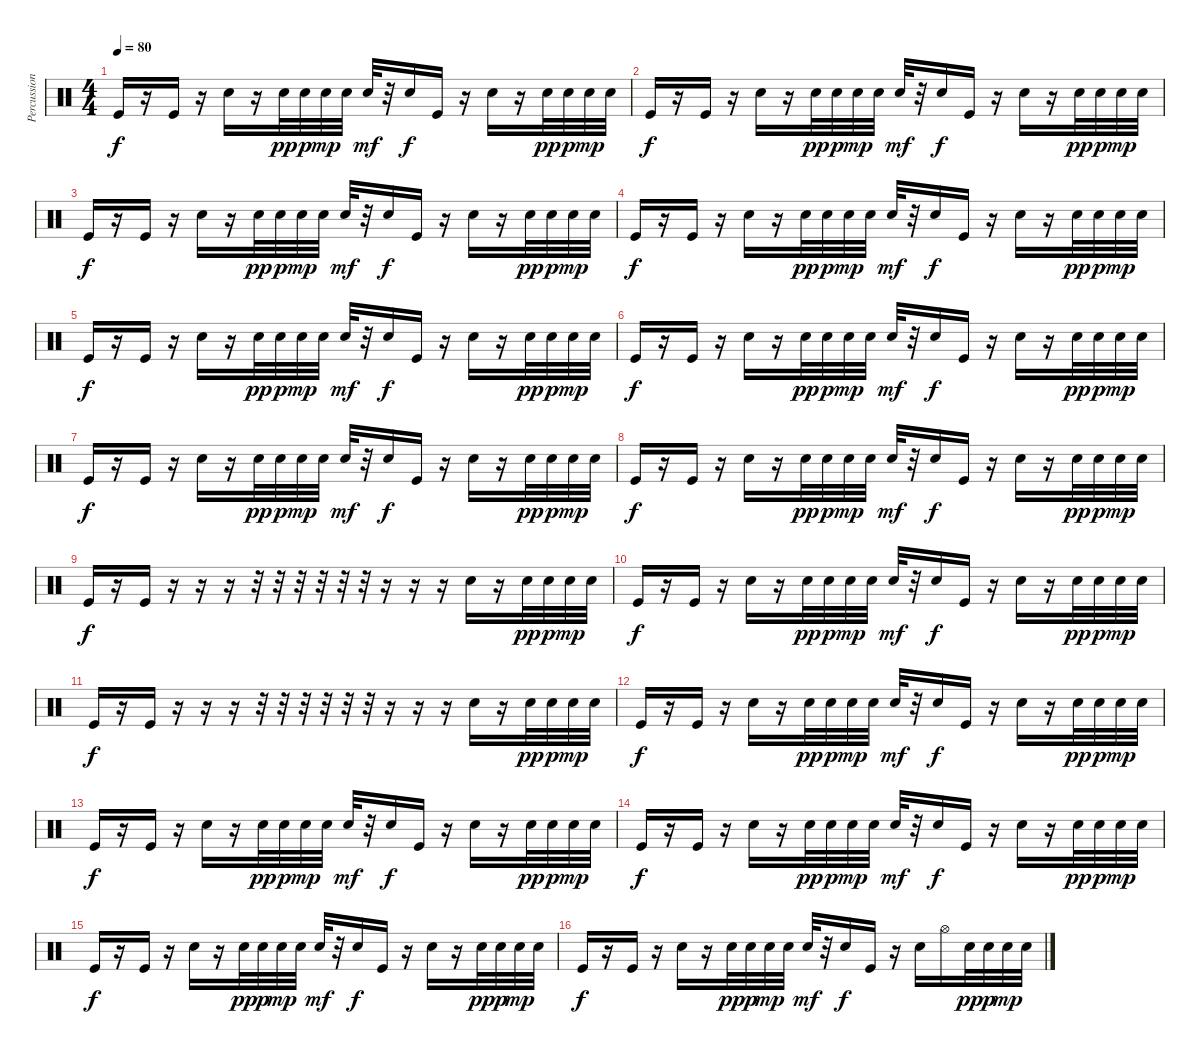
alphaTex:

\track ("Percussions" "Percussion") {instrument percussion}
\staff {score}
\articulation defaults
\ts (4 4)
\tempo 80
\clef neutral
\ks c "Kick (hit)".16{dy f}
r.16 "Kick (hit)".16 r.16 "Snare (hit) 2".16 r.16 "Snare (hit) 2".32{dy pp} "Snare (hit) 2".32{dy p} "Snare (hit) 2".32{dy mp} "Snare (hit) 2".32 "Snare (hit) 2".32{dy mf} r.32 "Electric Snare (hit)".16{dy f} "Kick (hit)".16 r.16 "Electric Snare (hit)".16 r.16 "Snare (hit) 2".32{dy pp} "Snare (hit) 2".32{dy p} "Snare (hit) 2".32{dy mp} "Snare (hit) 2".32 |
"Kick (hit)".16{dy f} r.16 "Kick (hit)".16 r.16 "Snare (hit) 2".16 r.16 "Snare (hit) 2".32{dy pp} "Snare (hit) 2".32{dy p} "Snare (hit) 2".32{dy mp} "Snare (hit) 2".32 "Snare (hit) 2".32{dy mf} r.32 "Electric Snare (hit)".16{dy f} "Kick (hit)".16 r.16 "Electric Snare (hit)".16 r.16 "Snare (hit) 2".32{dy pp} "Snare (hit) 2".32{dy p} "Snare (hit) 2".32{dy mp} "Snare (hit) 2".32 |
"Kick (hit)".16{dy f} r.16 "Kick (hit)".16 r.16 "Snare (hit) 2".16 r.16 "Snare (hit) 2".32{dy pp} "Snare (hit) 2".32{dy p} "Snare (hit) 2".32{dy mp} "Snare (hit) 2".32 "Snare (hit) 2".32{dy mf} r.32 "Electric Snare (hit)".16{dy f} "Kick (hit)".16 r.16 "Electric Snare (hit)".16 r.16 "Snare (hit) 2".32{dy pp} "Snare (hit) 2".32{dy p} "Snare (hit) 2".32{dy mp} "Snare (hit) 2".32 |
"Kick (hit)".16{dy f} r.16 "Kick (hit)".16 r.16 "Snare (hit) 2".16 r.16 "Snare (hit) 2".32{dy pp} "Snare (hit) 2".32{dy p} "Snare (hit) 2".32{dy mp} "Snare (hit) 2".32 "Snare (hit) 2".32{dy mf} r.32 "Electric Snare (hit)".16{dy f} "Kick (hit)".16 r.16 "Electric Snare (hit)".16 r.16 "Snare (hit) 2".32{dy pp} "Snare (hit) 2".32{dy p} "Snare (hit) 2".32{dy mp} "Snare (hit) 2".32 |
"Kick (hit)".16{dy f} r.16 "Kick (hit)".16 r.16 "Snare (hit) 2".16 r.16 "Snare (hit) 2".32{dy pp} "Snare (hit) 2".32{dy p} "Snare (hit) 2".32{dy mp} "Snare (hit) 2".32 "Snare (hit) 2".32{dy mf} r.32 "Electric Snare (hit)".16{dy f} "Kick (hit)".16 r.16 "Electric Snare (hit)".16 r.16 "Snare (hit) 2".32{dy pp} "Snare (hit) 2".32{dy p} "Snare (hit) 2".32{dy mp} "Snare (hit) 2".32 |
"Kick (hit)".16{dy f} r.16 "Kick (hit)".16 r.16 "Snare (hit) 2".16 r.16 "Snare (hit) 2".32{dy pp} "Snare (hit) 2".32{dy p} "Snare (hit) 2".32{dy mp} "Snare (hit) 2".32 "Snare (hit) 2".32{dy mf} r.32 "Electric Snare (hit)".16{dy f} "Kick (hit)".16 r.16 "Electric Snare (hit)".16 r.16 "Snare (hit) 2".32{dy pp} "Snare (hit) 2".32{dy p} "Snare (hit) 2".32{dy mp} "Snare (hit) 2".32 |
"Kick (hit)".16{dy f} r.16 "Kick (hit)".16 r.16 "Snare (hit) 2".16 r.16 "Snare (hit) 2".32{dy pp} "Snare (hit) 2".32{dy p} "Snare (hit) 2".32{dy mp} "Snare (hit) 2".32 "Snare (hit) 2".32{dy mf} r.32 "Electric Snare (hit)".16{dy f} "Kick (hit)".16 r.16 "Electric Snare (hit)".16 r.16 "Snare (hit) 2".32{dy pp} "Snare (hit) 2".32{dy p} "Snare (hit) 2".32{dy mp} "Snare (hit) 2".32 |
"Kick (hit)".16{dy f} r.16 "Kick (hit)".16 r.16 "Snare (hit) 2".16 r.16 "Snare (hit) 2".32{dy pp} "Snare (hit) 2".32{dy p} "Snare (hit) 2".32{dy mp} "Snare (hit) 2".32 "Snare (hit) 2".32{dy mf} r.32 "Electric Snare (hit)".16{dy f} "Kick (hit)".16 r.16 "Electric Snare (hit)".16 r.16 "Snare (hit) 2".32{dy pp} "Snare (hit) 2".32{dy p} "Snare (hit) 2".32{dy mp} "Snare (hit) 2".32 |
"Kick (hit)".16{dy f} r.16 "Kick (hit)".16 r.16 r.16 r.16 r.32 r.32 r.32 r.32 r.32 r.32 r.16 r.16 r.16 "Electric Snare (hit)".16 r.16 "Snare (hit) 2".32{dy pp} "Snare (hit) 2".32{dy p} "Snare (hit) 2".32{dy mp} "Snare (hit) 2".32 |
"Kick (hit)".16{dy f} r.16 "Kick (hit)".16 r.16 "Snare (hit) 2".16 r.16 "Snare (hit) 2".32{dy pp} "Snare (hit) 2".32{dy p} "Snare (hit) 2".32{dy mp} "Snare (hit) 2".32 "Snare (hit) 2".32{dy mf} r.32 "Electric Snare (hit)".16{dy f} "Kick (hit)".16 r.16 "Electric Snare (hit)".16 r.16 "Snare (hit) 2".32{dy pp} "Snare (hit) 2".32{dy p} "Snare (hit) 2".32{dy mp} "Snare (hit) 2".32 |
"Kick (hit)".16{dy f} r.16 "Kick (hit)".16 r.16 r.16 r.16 r.32 r.32 r.32 r.32 r.32 r.32 r.16 r.16 r.16 "Electric Snare (hit)".16 r.16 "Snare (hit) 2".32{dy pp} "Snare (hit) 2".32{dy p} "Snare (hit) 2".32{dy mp} "Snare (hit) 2".32 |
"Kick (hit)".16{dy f} r.16 "Kick (hit)".16 r.16 "Snare (hit) 2".16 r.16 "Snare (hit) 2".32{dy pp} "Snare (hit) 2".32{dy p} "Snare (hit) 2".32{dy mp} "Snare (hit) 2".32 "Snare (hit) 2".32{dy mf} r.32 "Electric Snare (hit)".16{dy f} "Kick (hit)".16 r.16 "Electric Snare (hit)".16 r.16 "Snare (hit) 2".32{dy pp} "Snare (hit) 2".32{dy p} "Snare (hit) 2".32{dy mp} "Snare (hit) 2".32 |
"Kick (hit)".16{dy f} r.16 "Kick (hit)".16 r.16 "Snare (hit) 2".16 r.16 "Snare (hit) 2".32{dy pp} "Snare (hit) 2".32{dy p} "Snare (hit) 2".32{dy mp} "Snare (hit) 2".32 "Snare (hit) 2".32{dy mf} r.32 "Electric Snare (hit)".16{dy f} "Kick (hit)".16 r.16 "Electric Snare (hit)".16 r.16 "Snare (hit) 2".32{dy pp} "Snare (hit) 2".32{dy p} "Snare (hit) 2".32{dy mp} "Snare (hit) 2".32 |
"Kick (hit)".16{dy f} r.16 "Kick (hit)".16 r.16 "Snare (hit) 2".16 r.16 "Snare (hit) 2".32{dy pp} "Snare (hit) 2".32{dy p} "Snare (hit) 2".32{dy mp} "Snare (hit) 2".32 "Snare (hit) 2".32{dy mf} r.32 "Electric Snare (hit)".16{dy f} "Kick (hit)".16 r.16 "Electric Snare (hit)".16 r.16 "Snare (hit) 2".32{dy pp} "Snare (hit) 2".32{dy p} "Snare (hit) 2".32{dy mp} "Snare (hit) 2".32 |
"Kick (hit)".16{dy f} r.16 "Kick (hit)".16 r.16 "Snare (hit) 2".16 r.16 "Snare (hit) 2".32{dy pp} "Snare (hit) 2".32{dy p} "Snare (hit) 2".32{dy mp} "Snare (hit) 2".32 "Snare (hit) 2".32{dy mf} r.32 "Electric Snare (hit)".16{dy f} "Kick (hit)".16 r.16 "Electric Snare (hit)".16 r.16 "Snare (hit) 2".32{dy pp} "Snare (hit) 2".32{dy p} "Snare (hit) 2".32{dy mp} "Snare (hit) 2".32 |
"Kick (hit)".16{dy f} r.16 "Kick (hit)".16 r.16 "Snare (hit) 2".16 r.16 "Snare (hit) 2".32{dy pp} "Snare (hit) 2".32{dy p} "Snare (hit) 2".32{dy mp} "Snare (hit) 2".32 "Snare (hit) 2".32{dy mf} r.32 "Electric Snare (hit)".16{dy f} "Kick (hit)".16 r.16 "Electric Snare (hit)".16 "Hi-Hat (open)".16 "Snare (hit) 2".32{dy pp} "Snare (hit) 2".32{dy p} "Snare (hit) 2".32{dy mp} "Snare (hit) 2".32
